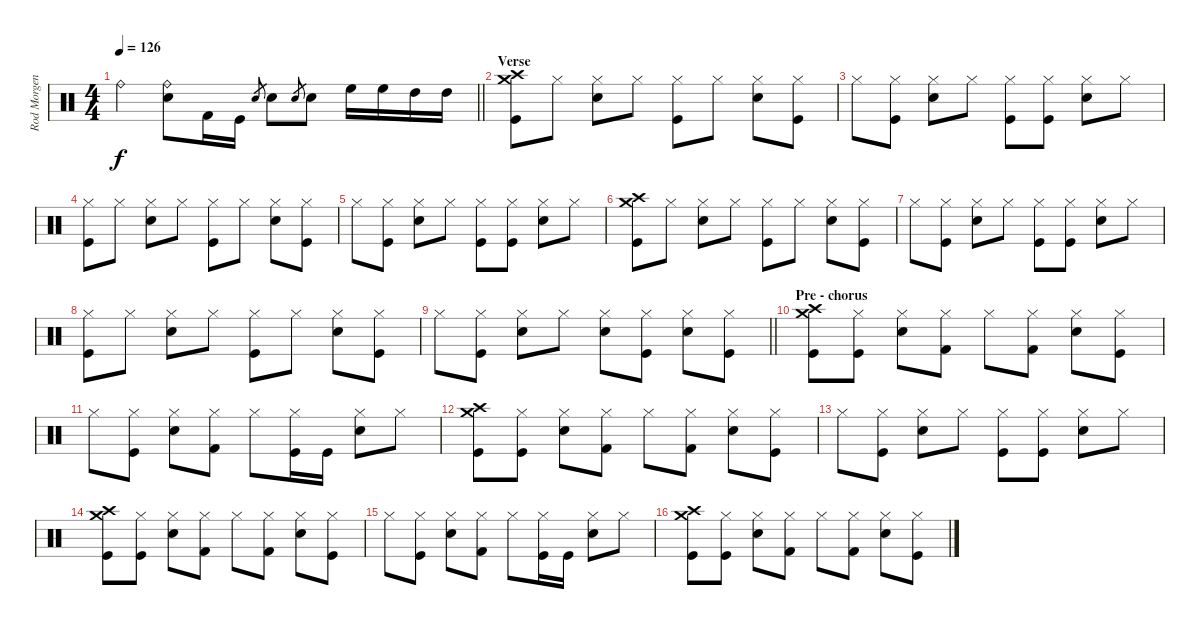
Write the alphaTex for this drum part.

\track ("Rod Morgenstein" "Rod Morgen") {instrument percussion}
\staff {score}
\articulation defaults
\ts (4 4)
\tempo 126
\clef neutral
\barLineRight lightlight
\ks c "Ride (bell)".4{dy f}
("Snare (hit) 2" "Ride (bell)").8 "Kick (hit) 2".16 "Kick (hit)".16 "Snare (hit) 2".8{gr} "Snare (hit) 2".8 "Snare (hit) 2".8{gr} "Snare (hit) 2".8 "High Floor Tom (hit)".16 "High Floor Tom (hit)".16 "High Tom (hit)".16 "High Tom (hit)".16 |
\section ("" "Verse")
("Kick (hit)" "Crash high (hit)" "Crash medium (hit)").8 "Hi-Hat (closed)".8 ("Snare (hit) 2" "Hi-Hat (closed)").8 "Hi-Hat (closed)".8 ("Kick (hit)" "Hi-Hat (closed)").8 "Hi-Hat (closed)".8 ("Snare (hit) 2" "Hi-Hat (closed)").8 ("Hi-Hat (closed)" "Kick (hit)").8 |
"Hi-Hat (closed)".8 ("Hi-Hat (closed)" "Kick (hit)").8 ("Hi-Hat (closed)" "Snare (hit) 2").8 "Hi-Hat (closed)".8 ("Hi-Hat (closed)" "Kick (hit)").8 ("Hi-Hat (closed)" "Kick (hit)").8 ("Hi-Hat (closed)" "Snare (hit) 2").8 "Hi-Hat (closed)".8 |
("Kick (hit)" "Hi-Hat (closed)").8 "Hi-Hat (closed)".8 ("Snare (hit) 2" "Hi-Hat (closed)").8 "Hi-Hat (closed)".8 ("Kick (hit)" "Hi-Hat (closed)").8 "Hi-Hat (closed)".8 ("Snare (hit) 2" "Hi-Hat (closed)").8 ("Hi-Hat (closed)" "Kick (hit)").8 |
"Hi-Hat (closed)".8 ("Hi-Hat (closed)" "Kick (hit)").8 ("Hi-Hat (closed)" "Snare (hit) 2").8 "Hi-Hat (closed)".8 ("Hi-Hat (closed)" "Kick (hit)").8 ("Hi-Hat (closed)" "Kick (hit)").8 ("Hi-Hat (closed)" "Snare (hit) 2").8 "Hi-Hat (closed)".8 |
("Kick (hit)" "Crash high (hit)" "Crash medium (hit)").8 "Hi-Hat (closed)".8 ("Snare (hit) 2" "Hi-Hat (closed)").8 "Hi-Hat (closed)".8 ("Kick (hit)" "Hi-Hat (closed)").8 "Hi-Hat (closed)".8 ("Snare (hit) 2" "Hi-Hat (closed)").8 ("Hi-Hat (closed)" "Kick (hit)").8 |
"Hi-Hat (closed)".8 ("Hi-Hat (closed)" "Kick (hit)").8 ("Hi-Hat (closed)" "Snare (hit) 2").8 "Hi-Hat (closed)".8 ("Hi-Hat (closed)" "Kick (hit)").8 ("Hi-Hat (closed)" "Kick (hit)").8 ("Hi-Hat (closed)" "Snare (hit) 2").8 "Hi-Hat (closed)".8 |
("Kick (hit)" "Hi-Hat (closed)").8 "Hi-Hat (closed)".8 ("Snare (hit) 2" "Hi-Hat (closed)").8 "Hi-Hat (closed)".8 ("Kick (hit)" "Hi-Hat (closed)").8 "Hi-Hat (closed)".8 ("Snare (hit) 2" "Hi-Hat (closed)").8 ("Hi-Hat (closed)" "Kick (hit)").8 |
\barLineRight lightlight "Hi-Hat (closed)".8
("Hi-Hat (closed)" "Kick (hit)").8 ("Hi-Hat (closed)" "Snare (hit) 2").8 "Hi-Hat (closed)".8 ("Hi-Hat (closed)" "Snare (hit) 2").8 ("Hi-Hat (closed)" "Kick (hit)").8 ("Hi-Hat (closed)" "Snare (hit) 2").8 ("Hi-Hat (closed)" "Kick (hit)").8 |
\section ("" "Pre - chorus")
("Kick (hit)" "Crash high (hit)" "Crash medium (hit)").8 ("Kick (hit)" "Hi-Hat (closed)").8 ("Snare (hit) 2" "Hi-Hat (closed)").8 ("Kick (hit) 2" "Hi-Hat (closed)").8 "Hi-Hat (closed)".8 ("Kick (hit) 2" "Hi-Hat (closed)").8 ("Snare (hit) 2" "Hi-Hat (closed)").8 ("Kick (hit)" "Hi-Hat (closed)").8 |
"Hi-Hat (closed)".8 ("Kick (hit)" "Hi-Hat (closed)").8 ("Hi-Hat (closed)" "Snare (hit) 2").8 ("Kick (hit) 2" "Hi-Hat (closed)").8 "Hi-Hat (closed)".8 ("Kick (hit)" "Hi-Hat (closed)").16 "Kick (hit)".16 ("Hi-Hat (closed)" "Snare (hit) 2").8 "Hi-Hat (closed)".8 |
("Kick (hit)" "Crash high (hit)" "Crash medium (hit)").8 ("Kick (hit)" "Hi-Hat (closed)").8 ("Snare (hit) 2" "Hi-Hat (closed)").8 ("Kick (hit) 2" "Hi-Hat (closed)").8 "Hi-Hat (closed)".8 ("Kick (hit) 2" "Hi-Hat (closed)").8 ("Snare (hit) 2" "Hi-Hat (closed)").8 ("Kick (hit)" "Hi-Hat (closed)").8 |
"Hi-Hat (closed)".8 ("Hi-Hat (closed)" "Kick (hit)").8 ("Hi-Hat (closed)" "Snare (hit) 2").8 "Hi-Hat (closed)".8 ("Hi-Hat (closed)" "Kick (hit)").8 ("Hi-Hat (closed)" "Kick (hit)").8 ("Hi-Hat (closed)" "Snare (hit) 2").8 "Hi-Hat (closed)".8 |
("Kick (hit)" "Crash high (hit)" "Crash medium (hit)").8 ("Kick (hit)" "Hi-Hat (closed)").8 ("Snare (hit) 2" "Hi-Hat (closed)").8 ("Kick (hit) 2" "Hi-Hat (closed)").8 "Hi-Hat (closed)".8 ("Kick (hit) 2" "Hi-Hat (closed)").8 ("Snare (hit) 2" "Hi-Hat (closed)").8 ("Kick (hit)" "Hi-Hat (closed)").8 |
"Hi-Hat (closed)".8 ("Kick (hit)" "Hi-Hat (closed)").8 ("Hi-Hat (closed)" "Snare (hit) 2").8 ("Kick (hit) 2" "Hi-Hat (closed)").8 "Hi-Hat (closed)".8 ("Kick (hit)" "Hi-Hat (closed)").16 "Kick (hit)".16 ("Hi-Hat (closed)" "Snare (hit) 2").8 "Hi-Hat (closed)".8 |
("Kick (hit)" "Crash high (hit)" "Crash medium (hit)").8 ("Kick (hit)" "Hi-Hat (closed)").8 ("Snare (hit) 2" "Hi-Hat (closed)").8 ("Kick (hit) 2" "Hi-Hat (closed)").8 "Hi-Hat (closed)".8 ("Kick (hit) 2" "Hi-Hat (closed)").8 ("Snare (hit) 2" "Hi-Hat (closed)").8 ("Kick (hit)" "Hi-Hat (closed)").8
